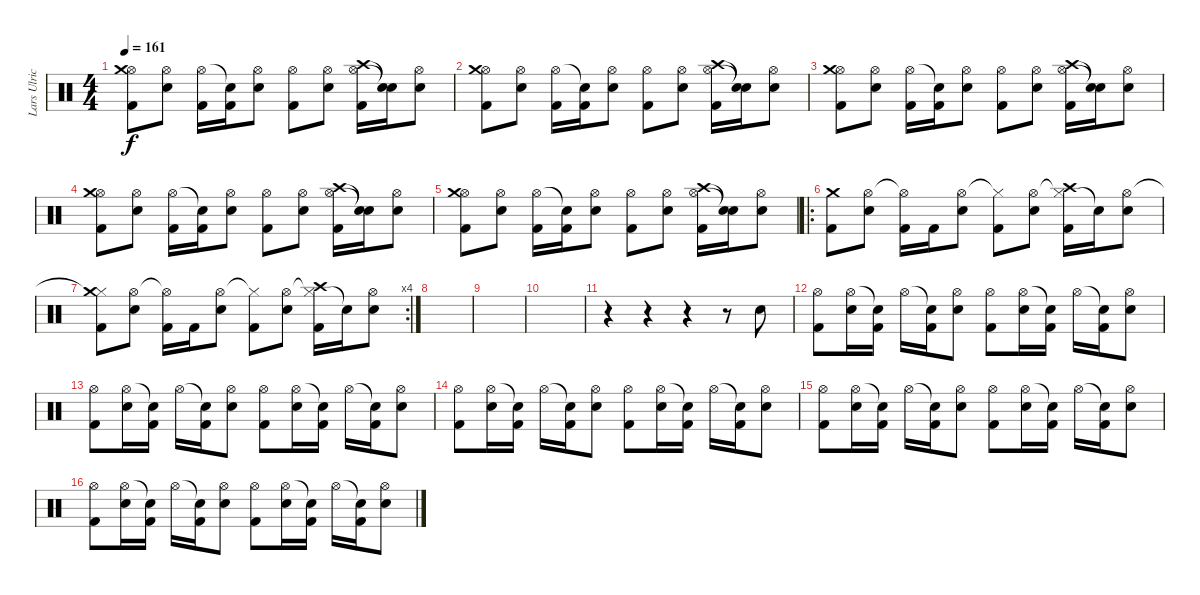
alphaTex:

\track ("Lars Ulrich" "Lars Ulric") {instrument percussion}
\staff {score}
\articulation defaults
\ts (4 4)
\tempo 161
\clef neutral
\ks c
("Hi-Hat (open)" "Crash medium (hit)" "Kick (hit) 2").8{dy f} ("Hi-Hat (open)" "Electric Snare (hit)").8 ("Hi-Hat (open)" "Kick (hit) 2").16 ("Snare (hit)"{t} "Kick (hit) 2").16 ("Hi-Hat (open)" "Electric Snare (hit)").8 ("Hi-Hat (open)" "Kick (hit) 2").8 ("Hi-Hat (open)" "Electric Snare (hit)").8 ("Hi-Hat (open)" "Crash high (hit)" "Kick (hit) 2").16 ("Snare (hit)"{t} "Snare (hit)"{t}).16 ("Hi-Hat (open)" "Electric Snare (hit)").8 |
("Hi-Hat (open)" "Crash medium (hit)" "Kick (hit) 2").8 ("Hi-Hat (open)" "Electric Snare (hit)").8 ("Hi-Hat (open)" "Kick (hit) 2").16 ("Snare (hit)"{t} "Kick (hit) 2").16 ("Hi-Hat (open)" "Electric Snare (hit)").8 ("Hi-Hat (open)" "Kick (hit) 2").8 ("Hi-Hat (open)" "Electric Snare (hit)").8 ("Hi-Hat (open)" "Crash high (hit)" "Kick (hit) 2").16 ("Snare (hit)"{t} "Snare (hit)"{t}).16 ("Hi-Hat (open)" "Electric Snare (hit)").8 |
("Hi-Hat (open)" "Crash medium (hit)" "Kick (hit) 2").8 ("Hi-Hat (open)" "Electric Snare (hit)").8 ("Hi-Hat (open)" "Kick (hit) 2").16 ("Snare (hit)"{t} "Kick (hit) 2").16 ("Hi-Hat (open)" "Electric Snare (hit)").8 ("Hi-Hat (open)" "Kick (hit) 2").8 ("Hi-Hat (open)" "Electric Snare (hit)").8 ("Hi-Hat (open)" "Crash high (hit)" "Kick (hit) 2").16 ("Snare (hit)"{t} "Snare (hit)"{t}).16 ("Hi-Hat (open)" "Electric Snare (hit)").8 |
("Hi-Hat (open)" "Crash medium (hit)" "Kick (hit) 2").8 ("Hi-Hat (open)" "Electric Snare (hit)").8 ("Hi-Hat (open)" "Kick (hit) 2").16 ("Snare (hit)"{t} "Kick (hit) 2").16 ("Hi-Hat (open)" "Electric Snare (hit)").8 ("Hi-Hat (open)" "Kick (hit) 2").8 ("Hi-Hat (open)" "Electric Snare (hit)").8 ("Hi-Hat (open)" "Crash high (hit)" "Kick (hit) 2").16 ("Snare (hit)"{t} "Snare (hit)"{t}).16 ("Hi-Hat (open)" "Electric Snare (hit)").8 |
("Hi-Hat (open)" "Crash medium (hit)" "Kick (hit) 2").8 ("Hi-Hat (open)" "Electric Snare (hit)").8 ("Hi-Hat (open)" "Kick (hit) 2").16 ("Snare (hit)"{t} "Kick (hit) 2").16 ("Hi-Hat (open)" "Electric Snare (hit)").8 ("Hi-Hat (open)" "Kick (hit) 2").8 ("Hi-Hat (open)" "Electric Snare (hit)").8 ("Hi-Hat (open)" "Crash high (hit)" "Kick (hit) 2").16 ("Snare (hit)"{t} "Snare (hit)"{t}).16 ("Hi-Hat (open)" "Electric Snare (hit)").8 |
\ro
("Crash medium (hit)" "Kick (hit) 2").8 ("Hi-Hat (open)" "Electric Snare (hit)").8 ("Hi-Hat (open)"{t} "Kick (hit) 2").16 "Kick (hit) 2".16 ("Hi-Hat (open)" "Electric Snare (hit)").8 ("Hi-Hat (closed)"{t} "Kick (hit) 2").8 ("Hi-Hat (open)" "Electric Snare (hit)").8 ("Hi-Hat (closed)"{t} "Crash high (hit)" "Kick (hit) 2").16 "Snare (hit)"{t}.16 ("Hi-Hat (open)" "Electric Snare (hit)").8 |
\rc 4
("Hi-Hat (closed)"{t} "Crash medium (hit)" "Kick (hit) 2").8 ("Hi-Hat (open)" "Electric Snare (hit)").8 ("Hi-Hat (open)"{t} "Kick (hit) 2").16 "Kick (hit) 2".16 ("Hi-Hat (open)" "Electric Snare (hit)").8 ("Hi-Hat (closed)"{t} "Kick (hit) 2").8 ("Hi-Hat (open)" "Electric Snare (hit)").8 ("Hi-Hat (closed)"{t} "Crash high (hit)" "Kick (hit) 2").16 "Snare (hit)"{t}.16 ("Hi-Hat (open)" "Electric Snare (hit)").8 |
|
|
|
r.4 r.4 r.4 r.8 "Electric Snare (hit)".8 |
("Hi-Hat (open)" "Kick (hit) 2").8 ("Hi-Hat (open)" "Electric Snare (hit)").16 ("Snare (hit)"{t} "Kick (hit) 2").16 "Hi-Hat (open)".16 ("Snare (hit)"{t} "Kick (hit) 2").16 ("Hi-Hat (open)" "Electric Snare (hit)").8 ("Hi-Hat (open)" "Kick (hit) 2").8 ("Hi-Hat (open)" "Electric Snare (hit)").16 ("Snare (hit)"{t} "Kick (hit) 2").16 "Hi-Hat (open)".16 ("Snare (hit)"{t} "Kick (hit) 2").16 ("Hi-Hat (open)" "Electric Snare (hit)").8 |
("Hi-Hat (open)" "Kick (hit) 2").8 ("Hi-Hat (open)" "Electric Snare (hit)").16 ("Snare (hit)"{t} "Kick (hit) 2").16 "Hi-Hat (open)".16 ("Snare (hit)"{t} "Kick (hit) 2").16 ("Hi-Hat (open)" "Electric Snare (hit)").8 ("Hi-Hat (open)" "Kick (hit) 2").8 ("Hi-Hat (open)" "Electric Snare (hit)").16 ("Snare (hit)"{t} "Kick (hit) 2").16 "Hi-Hat (open)".16 ("Snare (hit)"{t} "Kick (hit) 2").16 ("Hi-Hat (open)" "Electric Snare (hit)").8 |
("Hi-Hat (open)" "Kick (hit) 2").8 ("Hi-Hat (open)" "Electric Snare (hit)").16 ("Snare (hit)"{t} "Kick (hit) 2").16 "Hi-Hat (open)".16 ("Snare (hit)"{t} "Kick (hit) 2").16 ("Hi-Hat (open)" "Electric Snare (hit)").8 ("Hi-Hat (open)" "Kick (hit) 2").8 ("Hi-Hat (open)" "Electric Snare (hit)").16 ("Snare (hit)"{t} "Kick (hit) 2").16 "Hi-Hat (open)".16 ("Snare (hit)"{t} "Kick (hit) 2").16 ("Hi-Hat (open)" "Electric Snare (hit)").8 |
("Hi-Hat (open)" "Kick (hit) 2").8 ("Hi-Hat (open)" "Electric Snare (hit)").16 ("Snare (hit)"{t} "Kick (hit) 2").16 "Hi-Hat (open)".16 ("Snare (hit)"{t} "Kick (hit) 2").16 ("Hi-Hat (open)" "Electric Snare (hit)").8 ("Hi-Hat (open)" "Kick (hit) 2").8 ("Hi-Hat (open)" "Electric Snare (hit)").16 ("Snare (hit)"{t} "Kick (hit) 2").16 "Hi-Hat (open)".16 ("Snare (hit)"{t} "Kick (hit) 2").16 ("Hi-Hat (open)" "Electric Snare (hit)").8 |
("Hi-Hat (open)" "Kick (hit) 2").8 ("Hi-Hat (open)" "Electric Snare (hit)").16 ("Snare (hit)"{t} "Kick (hit) 2").16 "Hi-Hat (open)".16 ("Snare (hit)"{t} "Kick (hit) 2").16 ("Hi-Hat (open)" "Electric Snare (hit)").8 ("Hi-Hat (open)" "Kick (hit) 2").8 ("Hi-Hat (open)" "Electric Snare (hit)").16 ("Snare (hit)"{t} "Kick (hit) 2").16 "Hi-Hat (open)".16 ("Snare (hit)"{t} "Kick (hit) 2").16 ("Hi-Hat (open)" "Electric Snare (hit)").8
